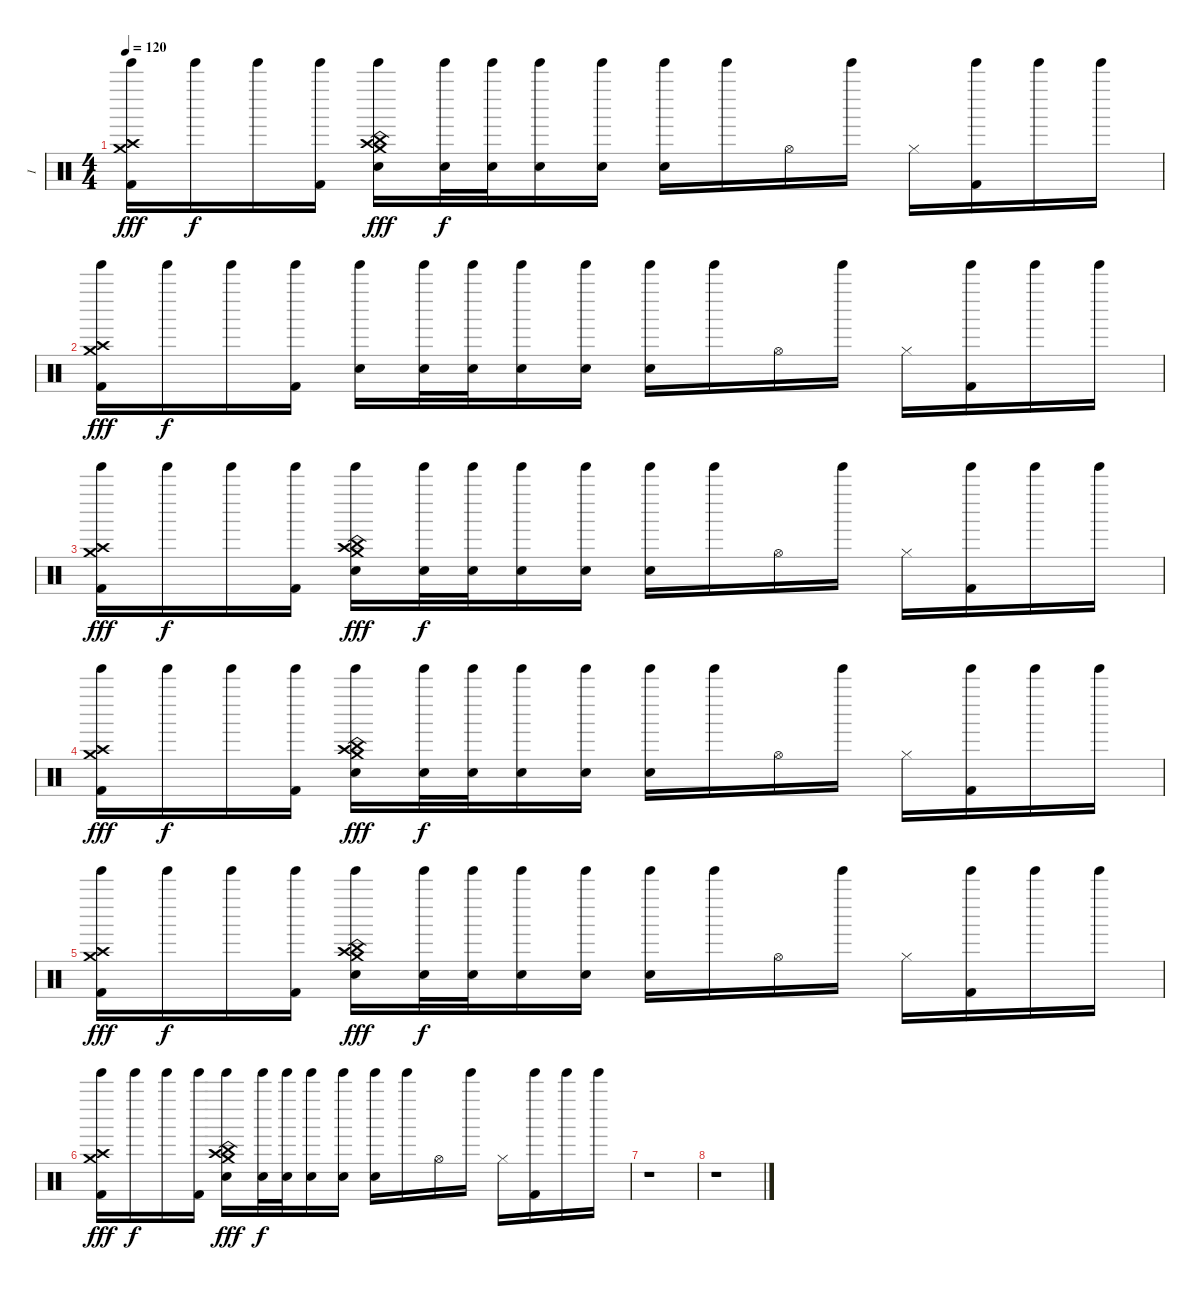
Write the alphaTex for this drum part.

\track ("I" "I") {instrument percussion}
\staff {score}
\articulation defaults
\ts (4 4)
\tempo 120
\clef neutral
\ks c
("Crash high (hit)" "Crash medium (hit)" "Tinkle Bell (hit)" "Kick (hit) 2").16{dy fff} "Tinkle Bell (hit)".16{dy f} "Tinkle Bell (hit)".16 ("Tinkle Bell (hit)" "Kick (hit) 2").16 ("Crash high (hit)" "Crash medium (hit)" "Tinkle Bell (hit)" "Snare (hit) 2" "China (hit)").16{dy fff} ("Tinkle Bell (hit)" "Snare (hit) 2").32{dy f} ("Tinkle Bell (hit)" "Snare (hit) 2").32 ("Tinkle Bell (hit)" "Snare (hit) 2").16 ("Tinkle Bell (hit)" "Snare (hit) 2").16 ("Tinkle Bell (hit)" "Snare (hit) 2").16 "Tinkle Bell (hit)".16 "Hi-Hat (open)".16 "Tinkle Bell (hit)".16 "Hi-Hat (closed)".16 ("Tinkle Bell (hit)" "Kick (hit) 2").16 "Tinkle Bell (hit)".16 "Tinkle Bell (hit)".16 |
("Crash high (hit)" "Crash medium (hit)" "Tinkle Bell (hit)" "Kick (hit) 2").16{dy fff} "Tinkle Bell (hit)".16{dy f} "Tinkle Bell (hit)".16 ("Tinkle Bell (hit)" "Kick (hit) 2").16 ("Tinkle Bell (hit)" "Snare (hit) 2").16 ("Tinkle Bell (hit)" "Snare (hit) 2").32 ("Tinkle Bell (hit)" "Snare (hit) 2").32 ("Tinkle Bell (hit)" "Snare (hit) 2").16 ("Tinkle Bell (hit)" "Snare (hit) 2").16 ("Tinkle Bell (hit)" "Snare (hit) 2").16 "Tinkle Bell (hit)".16 "Hi-Hat (open)".16 "Tinkle Bell (hit)".16 "Hi-Hat (closed)".16 ("Tinkle Bell (hit)" "Kick (hit) 2").16 "Tinkle Bell (hit)".16 "Tinkle Bell (hit)".16 |
("Crash high (hit)" "Crash medium (hit)" "Tinkle Bell (hit)" "Kick (hit) 2").16{dy fff} "Tinkle Bell (hit)".16{dy f} "Tinkle Bell (hit)".16 ("Tinkle Bell (hit)" "Kick (hit) 2").16 ("Crash high (hit)" "Crash medium (hit)" "Tinkle Bell (hit)" "Snare (hit) 2" "China (hit)").16{dy fff} ("Tinkle Bell (hit)" "Snare (hit) 2").32{dy f} ("Tinkle Bell (hit)" "Snare (hit) 2").32 ("Tinkle Bell (hit)" "Snare (hit) 2").16 ("Tinkle Bell (hit)" "Snare (hit) 2").16 ("Tinkle Bell (hit)" "Snare (hit) 2").16 "Tinkle Bell (hit)".16 "Hi-Hat (open)".16 "Tinkle Bell (hit)".16 "Hi-Hat (closed)".16 ("Tinkle Bell (hit)" "Kick (hit) 2").16 "Tinkle Bell (hit)".16 "Tinkle Bell (hit)".16 |
("Crash high (hit)" "Crash medium (hit)" "Tinkle Bell (hit)" "Kick (hit) 2").16{dy fff} "Tinkle Bell (hit)".16{dy f} "Tinkle Bell (hit)".16 ("Tinkle Bell (hit)" "Kick (hit) 2").16 ("Crash high (hit)" "Crash medium (hit)" "Tinkle Bell (hit)" "Snare (hit) 2" "China (hit)").16{dy fff} ("Tinkle Bell (hit)" "Snare (hit) 2").32{dy f} ("Tinkle Bell (hit)" "Snare (hit) 2").32 ("Tinkle Bell (hit)" "Snare (hit) 2").16 ("Tinkle Bell (hit)" "Snare (hit) 2").16 ("Tinkle Bell (hit)" "Snare (hit) 2").16 "Tinkle Bell (hit)".16 "Hi-Hat (open)".16 "Tinkle Bell (hit)".16 "Hi-Hat (closed)".16 ("Tinkle Bell (hit)" "Kick (hit) 2").16 "Tinkle Bell (hit)".16 "Tinkle Bell (hit)".16 |
("Crash high (hit)" "Crash medium (hit)" "Tinkle Bell (hit)" "Kick (hit) 2").16{dy fff volume 0} "Tinkle Bell (hit)".16{dy f} "Tinkle Bell (hit)".16 ("Tinkle Bell (hit)" "Kick (hit) 2").16 ("Crash high (hit)" "Crash medium (hit)" "Tinkle Bell (hit)" "Snare (hit) 2" "China (hit)").16{dy fff} ("Tinkle Bell (hit)" "Snare (hit) 2").32{dy f} ("Tinkle Bell (hit)" "Snare (hit) 2").32 ("Tinkle Bell (hit)" "Snare (hit) 2").16 ("Tinkle Bell (hit)" "Snare (hit) 2").16 ("Tinkle Bell (hit)" "Snare (hit) 2").16 "Tinkle Bell (hit)".16 "Hi-Hat (open)".16 "Tinkle Bell (hit)".16 "Hi-Hat (closed)".16 ("Tinkle Bell (hit)" "Kick (hit) 2").16 "Tinkle Bell (hit)".16 "Tinkle Bell (hit)".16 |
("Crash high (hit)" "Crash medium (hit)" "Tinkle Bell (hit)" "Kick (hit) 2").16{dy fff} "Tinkle Bell (hit)".16{dy f} "Tinkle Bell (hit)".16 ("Tinkle Bell (hit)" "Kick (hit) 2").16 ("Crash high (hit)" "Crash medium (hit)" "Tinkle Bell (hit)" "Snare (hit) 2" "China (hit)").16{dy fff} ("Tinkle Bell (hit)" "Snare (hit) 2").32{dy f} ("Tinkle Bell (hit)" "Snare (hit) 2").32 ("Tinkle Bell (hit)" "Snare (hit) 2").16 ("Tinkle Bell (hit)" "Snare (hit) 2").16 ("Tinkle Bell (hit)" "Snare (hit) 2").16 "Tinkle Bell (hit)".16 "Hi-Hat (open)".16 "Tinkle Bell (hit)".16 "Hi-Hat (closed)".16 ("Tinkle Bell (hit)" "Kick (hit) 2").16 "Tinkle Bell (hit)".16 "Tinkle Bell (hit)".16 |
r.1 |
r.1
